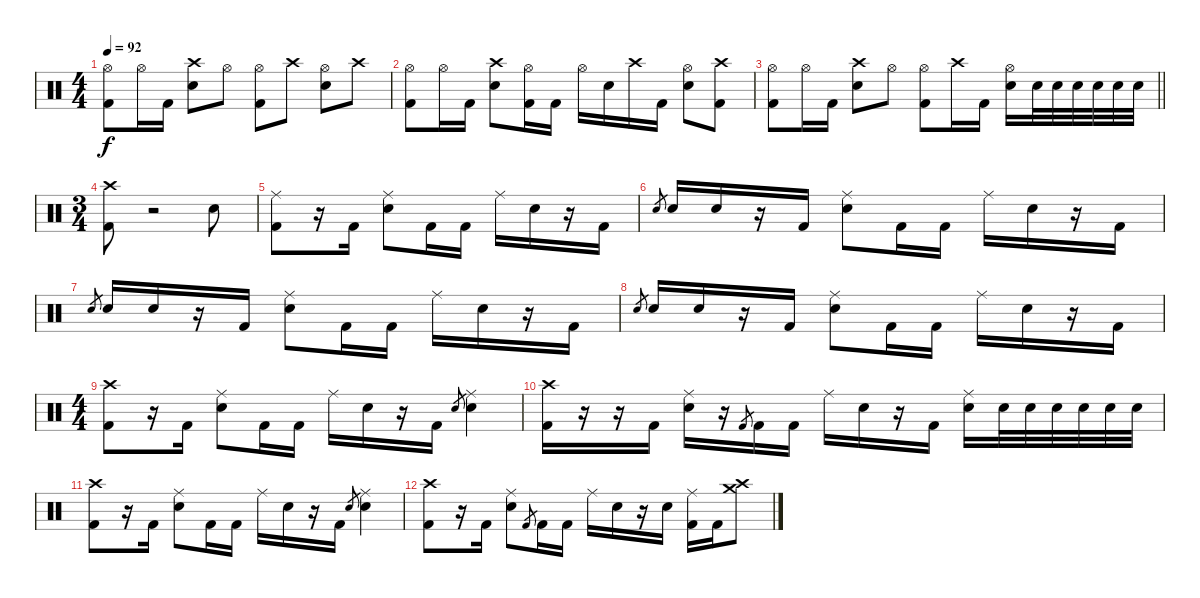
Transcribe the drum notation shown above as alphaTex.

\track "" {instrument percussion}
\staff {score}
\articulation defaults
\ts (4 4)
\tempo 92
\clef neutral
\ks c
("Hi-Hat (open)" "Kick (hit) 2").8{dy f} "Hi-Hat (open)".16 "Kick (hit) 2".16 ("Crash high (hit)" "Electric Snare (hit)").8 "Hi-Hat (open)".8 ("Hi-Hat (open)" "Kick (hit) 2").8 "Crash high (hit)".8 ("Hi-Hat (open)" "Electric Snare (hit)").8 "Crash high (hit)".8 |
("Hi-Hat (open)" "Kick (hit) 2").8 "Hi-Hat (open)".16 "Kick (hit) 2".16 ("Crash high (hit)" "Electric Snare (hit)").8 ("Hi-Hat (open)" "Kick (hit) 2").16 "Kick (hit) 2".16 "Hi-Hat (open)".16 "Electric Snare (hit)".16 "Crash high (hit)".16 "Kick (hit) 2".16 ("Hi-Hat (open)" "Electric Snare (hit)").8 ("Crash high (hit)" "Kick (hit) 2").8 |
\barLineRight lightlight
("Hi-Hat (open)" "Kick (hit) 2").8 "Hi-Hat (open)".16 "Kick (hit) 2".16 ("Crash high (hit)" "Electric Snare (hit)").8 "Hi-Hat (open)".8 ("Hi-Hat (open)" "Kick (hit) 2").8 "Crash high (hit)".16 "Kick (hit) 2".16 ("Hi-Hat (open)" "Electric Snare (hit)").16 "Electric Snare (hit)".32 "Electric Snare (hit)".32 "Electric Snare (hit)".32 "Electric Snare (hit)".32 "Electric Snare (hit)".32 "Electric Snare (hit)".32 |
\ts (3 4)
("Crash high (hit)" "Kick (hit) 2").8 r.2 "Electric Snare (hit)".8 |
("Ride (middle)" "Kick (hit) 2").8 r.16 "Kick (hit) 2".16 ("Ride (middle)" "Electric Snare (hit)").8 "Kick (hit) 2".16 "Kick (hit) 2".16 "Ride (middle)".16 "Electric Snare (hit)".16 r.16 "Kick (hit) 2".16 |
"Electric Snare (hit)".8{gr} "Electric Snare (hit)".16 "Electric Snare (hit)".16 r.16 "Kick (hit) 2".16 ("Ride (middle)" "Electric Snare (hit)").8 "Kick (hit) 2".16 "Kick (hit) 2".16 "Ride (middle)".16 "Electric Snare (hit)".16 r.16 "Kick (hit) 2".16 |
"Electric Snare (hit)".8{gr} "Electric Snare (hit)".16 "Electric Snare (hit)".16 r.16 "Kick (hit) 2".16 ("Ride (middle)" "Electric Snare (hit)").8 "Kick (hit) 2".16 "Kick (hit) 2".16 "Ride (middle)".16 "Electric Snare (hit)".16 r.16 "Kick (hit) 2".16 |
"Electric Snare (hit)".8{gr} "Electric Snare (hit)".16 "Electric Snare (hit)".16 r.16 "Kick (hit) 2".16 ("Ride (middle)" "Electric Snare (hit)").8 "Kick (hit) 2".16 "Kick (hit) 2".16 "Ride (middle)".16 "Electric Snare (hit)".16 r.16 "Kick (hit) 2".16 |
\ts (4 4)
("Crash high (hit)" "Kick (hit) 2").8 r.16 "Kick (hit) 2".16 ("Ride (middle)" "Electric Snare (hit)").8 "Kick (hit) 2".16 "Kick (hit) 2".16 "Ride (middle)".16 "Electric Snare (hit)".16 r.16 "Kick (hit) 2".16 "Electric Snare (hit)".8{gr} ("Ride (middle)" "Electric Snare (hit)").4 |
("Crash high (hit)" "Kick (hit) 2").16 r.16 r.16 "Kick (hit) 2".16 ("Ride (middle)" "Electric Snare (hit)").16 r.16 "Kick (hit) 2".8{gr} "Kick (hit) 2".16 "Kick (hit) 2".16 "Ride (middle)".16 "Electric Snare (hit)".16 r.16 "Kick (hit) 2".16 ("Ride (middle)" "Electric Snare (hit)").16 "Electric Snare (hit)".32 "Electric Snare (hit)".32 "Electric Snare (hit)".32 "Electric Snare (hit)".32 "Electric Snare (hit)".32 "Electric Snare (hit)".32 |
("Crash high (hit)" "Kick (hit) 2").8 r.16 "Kick (hit) 2".16 ("Ride (middle)" "Electric Snare (hit)").8 "Kick (hit) 2".16 "Kick (hit) 2".16 "Ride (middle)".16 "Electric Snare (hit)".16 r.16 "Kick (hit) 2".16 "Electric Snare (hit)".8{gr} ("Ride (middle)" "Electric Snare (hit)").4 |
("Crash high (hit)" "Kick (hit) 2").8 r.16 "Kick (hit) 2".16 ("Ride (middle)" "Electric Snare (hit)").8 "Kick (hit) 2".8{gr} "Kick (hit) 2".16 "Kick (hit) 2".16 "Ride (middle)".16 "Electric Snare (hit)".16 r.16 "Electric Snare (hit)".16 ("Ride (middle)" "Kick (hit) 2").16 "Kick (hit) 2".16 ("Crash medium (hit)" "Crash high (hit)").8
